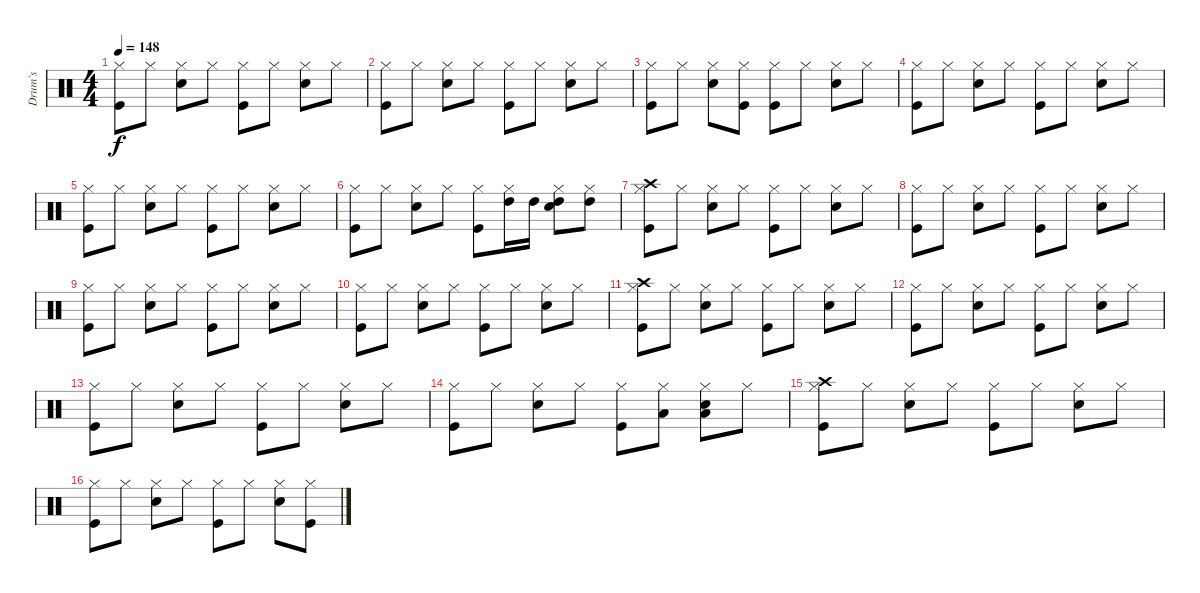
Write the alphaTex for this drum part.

\track ("Drum`s" "Drum`s") {instrument percussion}
\staff {score}
\articulation defaults
\ts (4 4)
\tempo 148
\clef neutral
\ks c
("Hi-Hat (closed)" "Kick (hit)").8{dy f} "Hi-Hat (closed)".8 ("Hi-Hat (closed)" "Snare (hit) 2").8 "Hi-Hat (closed)".8 ("Hi-Hat (closed)" "Kick (hit)").8 "Hi-Hat (closed)".8 ("Hi-Hat (closed)" "Snare (hit) 2").8 "Hi-Hat (closed)".8 |
("Hi-Hat (closed)" "Kick (hit)").8 "Hi-Hat (closed)".8 ("Hi-Hat (closed)" "Snare (hit) 2").8 "Hi-Hat (closed)".8 ("Hi-Hat (closed)" "Kick (hit)").8 "Hi-Hat (closed)".8 ("Hi-Hat (closed)" "Snare (hit) 2").8 "Hi-Hat (closed)".8 |
("Hi-Hat (closed)" "Kick (hit)").8 "Hi-Hat (closed)".8 ("Hi-Hat (closed)" "Snare (hit) 2").8 ("Kick (hit)" "Hi-Hat (closed)").8 ("Hi-Hat (closed)" "Kick (hit)").8 "Hi-Hat (closed)".8 ("Hi-Hat (closed)" "Snare (hit) 2").8 "Hi-Hat (closed)".8 |
("Hi-Hat (closed)" "Kick (hit)").8 "Hi-Hat (closed)".8 ("Hi-Hat (closed)" "Snare (hit) 2").8 "Hi-Hat (closed)".8 ("Hi-Hat (closed)" "Kick (hit)").8 "Hi-Hat (closed)".8 ("Hi-Hat (closed)" "Snare (hit) 2").8 "Hi-Hat (closed)".8 |
("Hi-Hat (closed)" "Kick (hit)").8 "Hi-Hat (closed)".8 ("Hi-Hat (closed)" "Snare (hit) 2").8 "Hi-Hat (closed)".8 ("Hi-Hat (closed)" "Kick (hit)").8 "Hi-Hat (closed)".8 ("Hi-Hat (closed)" "Snare (hit) 2").8 "Hi-Hat (closed)".8 |
("Hi-Hat (closed)" "Kick (hit)").8 "Hi-Hat (closed)".8 ("Hi-Hat (closed)" "Snare (hit) 2").8 "Hi-Hat (closed)".8 ("Hi-Hat (closed)" "Kick (hit)").8 ("High Tom (hit)" "Hi-Hat (closed)").16 "High Tom (hit)".16 ("High Tom (hit)" "Hi-Hat (closed)" "Snare (hit) 2").8 ("High Tom (hit)" "Hi-Hat (closed)").8 |
("Crash high (hit)" "Hi-Hat (closed)" "Kick (hit)").8 "Hi-Hat (closed)".8 ("Hi-Hat (closed)" "Snare (hit) 2").8 "Hi-Hat (closed)".8 ("Hi-Hat (closed)" "Kick (hit)").8 "Hi-Hat (closed)".8 ("Hi-Hat (closed)" "Snare (hit) 2").8 "Hi-Hat (closed)".8 |
("Hi-Hat (closed)" "Kick (hit)").8 "Hi-Hat (closed)".8 ("Hi-Hat (closed)" "Snare (hit) 2").8 "Hi-Hat (closed)".8 ("Hi-Hat (closed)" "Kick (hit)").8 "Hi-Hat (closed)".8 ("Hi-Hat (closed)" "Snare (hit) 2").8 "Hi-Hat (closed)".8 |
("Hi-Hat (closed)" "Kick (hit)").8 "Hi-Hat (closed)".8 ("Hi-Hat (closed)" "Snare (hit) 2").8 "Hi-Hat (closed)".8 ("Hi-Hat (closed)" "Kick (hit)").8 "Hi-Hat (closed)".8 ("Hi-Hat (closed)" "Snare (hit) 2").8 "Hi-Hat (closed)".8 |
("Hi-Hat (closed)" "Kick (hit)").8 "Hi-Hat (closed)".8 ("Hi-Hat (closed)" "Snare (hit) 2").8 "Hi-Hat (closed)".8 ("Hi-Hat (closed)" "Kick (hit)").8 "Hi-Hat (closed)".8 ("Hi-Hat (closed)" "Snare (hit) 2").8 "Hi-Hat (closed)".8 |
("Crash high (hit)" "Hi-Hat (closed)" "Kick (hit)").8 "Hi-Hat (closed)".8 ("Hi-Hat (closed)" "Snare (hit) 2").8 "Hi-Hat (closed)".8 ("Hi-Hat (closed)" "Kick (hit)").8 "Hi-Hat (closed)".8 ("Hi-Hat (closed)" "Snare (hit) 2").8 "Hi-Hat (closed)".8 |
("Hi-Hat (closed)" "Kick (hit)").8 "Hi-Hat (closed)".8 ("Hi-Hat (closed)" "Snare (hit) 2").8 "Hi-Hat (closed)".8 ("Hi-Hat (closed)" "Kick (hit)").8 "Hi-Hat (closed)".8 ("Hi-Hat (closed)" "Snare (hit) 2").8 "Hi-Hat (closed)".8 |
("Hi-Hat (closed)" "Kick (hit)").8 "Hi-Hat (closed)".8 ("Hi-Hat (closed)" "Snare (hit) 2").8 "Hi-Hat (closed)".8 ("Hi-Hat (closed)" "Kick (hit)").8 "Hi-Hat (closed)".8 ("Hi-Hat (closed)" "Snare (hit) 2").8 "Hi-Hat (closed)".8 |
("Hi-Hat (closed)" "Kick (hit)").8 "Hi-Hat (closed)".8 ("Hi-Hat (closed)" "Snare (hit) 2").8 "Hi-Hat (closed)".8 ("Hi-Hat (closed)" "Kick (hit)").8 ("Low Tom (hit)" "Hi-Hat (closed)").8 ("Low Tom (hit)" "Hi-Hat (closed)" "Snare (hit) 2").8 "Hi-Hat (closed)".8 |
("Crash high (hit)" "Hi-Hat (closed)" "Kick (hit)").8 "Hi-Hat (closed)".8 ("Hi-Hat (closed)" "Snare (hit) 2").8 "Hi-Hat (closed)".8 ("Hi-Hat (closed)" "Kick (hit)").8 "Hi-Hat (closed)".8 ("Hi-Hat (closed)" "Snare (hit) 2").8 "Hi-Hat (closed)".8 |
("Hi-Hat (closed)" "Kick (hit)").8 "Hi-Hat (closed)".8 ("Hi-Hat (closed)" "Snare (hit) 2").8 "Hi-Hat (closed)".8 ("Hi-Hat (closed)" "Kick (hit)").8 "Hi-Hat (closed)".8 ("Hi-Hat (closed)" "Snare (hit) 2").8 ("Kick (hit)" "Hi-Hat (closed)").8
